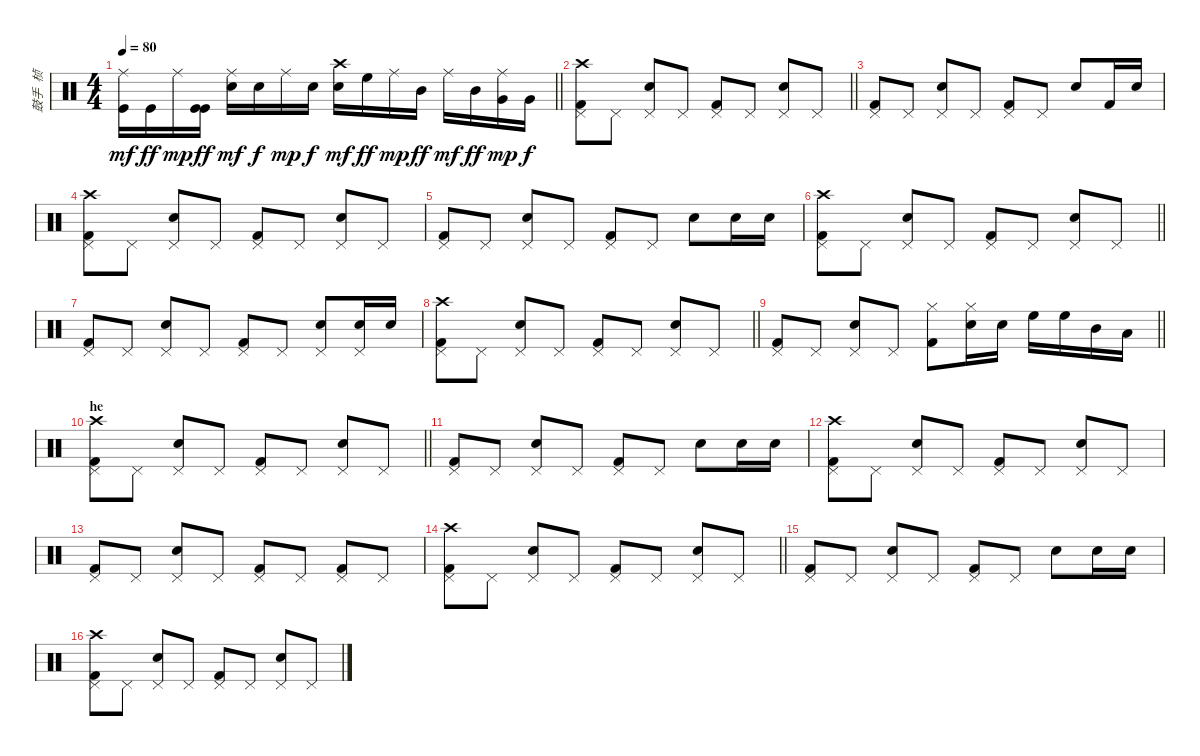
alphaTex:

\track ("鼓手  桢" "鼓手  桢") {instrument percussion}
\staff {score}
\articulation defaults
\ts (4 4)
\tempo 80
\clef neutral
\barLineRight lightlight
\ks c
("Kick (hit)" "Ride (middle)").16{dy mf} "Kick (hit)".16{dy ff} "Ride (middle)".16{dy mp} ("Kick (hit)" "Kick (hit)").16{dy ff} ("Snare (hit) 2" "Ride (middle)").16{dy mf} "Snare (hit) 2".16{dy f} "Ride (middle)".16{dy mp} "Snare (hit) 2".16{dy f} ("Snare (hit) 2" "Crash high (hit)").16{dy mf} "High Floor Tom (hit)".16{dy ff} "Ride (middle)".16{dy mp} "Mid Tom (hit)".16{dy ff} "Ride (middle)".16{dy mf} "Mid Tom (hit)".16{dy ff} ("Very Low Tom (hit)" "Ride (middle)").16{dy mp} "Very Low Tom (hit)".16{dy f} |
\barLineRight lightlight
("Pedal Hi-Hat (hit)" "Kick (hit) 2" "Crash high (hit)").8 "Pedal Hi-Hat (hit)".8 ("Pedal Hi-Hat (hit)" "Snare (hit) 2").8 "Pedal Hi-Hat (hit)".8 ("Pedal Hi-Hat (hit)" "Kick (hit) 2").8 "Pedal Hi-Hat (hit)".8 ("Pedal Hi-Hat (hit)" "Snare (hit) 2").8 "Pedal Hi-Hat (hit)".8 |
("Pedal Hi-Hat (hit)" "Kick (hit) 2").8 "Pedal Hi-Hat (hit)".8 ("Pedal Hi-Hat (hit)" "Snare (hit) 2").8 "Pedal Hi-Hat (hit)".8 ("Pedal Hi-Hat (hit)" "Kick (hit) 2").8 "Pedal Hi-Hat (hit)".8 "Snare (hit) 2".8 "Kick (hit) 2".16 "Snare (hit) 2".16 |
("Pedal Hi-Hat (hit)" "Kick (hit) 2" "Crash high (hit)").8 "Pedal Hi-Hat (hit)".8 ("Pedal Hi-Hat (hit)" "Snare (hit) 2").8 "Pedal Hi-Hat (hit)".8 ("Pedal Hi-Hat (hit)" "Kick (hit) 2").8 "Pedal Hi-Hat (hit)".8 ("Pedal Hi-Hat (hit)" "Snare (hit) 2").8 "Pedal Hi-Hat (hit)".8 |
("Pedal Hi-Hat (hit)" "Kick (hit) 2").8 "Pedal Hi-Hat (hit)".8 ("Pedal Hi-Hat (hit)" "Snare (hit) 2").8 "Pedal Hi-Hat (hit)".8 ("Pedal Hi-Hat (hit)" "Kick (hit) 2").8 "Pedal Hi-Hat (hit)".8 "Snare (hit) 2".8 "Snare (hit) 2".16 "Snare (hit) 2".16 |
\barLineRight lightlight
("Pedal Hi-Hat (hit)" "Kick (hit) 2" "Crash high (hit)").8 "Pedal Hi-Hat (hit)".8 ("Pedal Hi-Hat (hit)" "Snare (hit) 2").8 "Pedal Hi-Hat (hit)".8 ("Pedal Hi-Hat (hit)" "Kick (hit) 2").8 "Pedal Hi-Hat (hit)".8 ("Pedal Hi-Hat (hit)" "Snare (hit) 2").8 "Pedal Hi-Hat (hit)".8 |
("Pedal Hi-Hat (hit)" "Kick (hit) 2").8 "Pedal Hi-Hat (hit)".8 ("Pedal Hi-Hat (hit)" "Snare (hit) 2").8 "Pedal Hi-Hat (hit)".8 ("Pedal Hi-Hat (hit)" "Kick (hit) 2").8 "Pedal Hi-Hat (hit)".8 ("Pedal Hi-Hat (hit)" "Snare (hit) 2").8 ("Pedal Hi-Hat (hit)" "Snare (hit) 2").16 "Snare (hit) 2".16 |
\barLineRight lightlight
("Pedal Hi-Hat (hit)" "Kick (hit) 2" "Crash high (hit)").8 "Pedal Hi-Hat (hit)".8 ("Pedal Hi-Hat (hit)" "Snare (hit) 2").8 "Pedal Hi-Hat (hit)".8 ("Pedal Hi-Hat (hit)" "Kick (hit) 2").8 "Pedal Hi-Hat (hit)".8 ("Pedal Hi-Hat (hit)" "Snare (hit) 2").8 "Pedal Hi-Hat (hit)".8 |
\barLineRight lightlight
("Pedal Hi-Hat (hit)" "Kick (hit) 2").8 "Pedal Hi-Hat (hit)".8 ("Pedal Hi-Hat (hit)" "Snare (hit) 2").8 "Pedal Hi-Hat (hit)".8 ("Hi-Hat (closed)" "Kick (hit) 2").8 ("Hi-Hat (closed)" "Snare (hit) 2").16 "Snare (hit) 2".16 "High Floor Tom (hit)".16 "High Floor Tom (hit)".16 "Mid Tom (hit)".16 "Low Tom (hit)".16 |
\section ("" "he ")
\barLineRight lightlight
("Pedal Hi-Hat (hit)" "Kick (hit) 2" "Crash high (hit)").8 "Pedal Hi-Hat (hit)".8 ("Pedal Hi-Hat (hit)" "Snare (hit) 2").8 "Pedal Hi-Hat (hit)".8 ("Pedal Hi-Hat (hit)" "Kick (hit) 2").8 "Pedal Hi-Hat (hit)".8 ("Pedal Hi-Hat (hit)" "Snare (hit) 2").8 "Pedal Hi-Hat (hit)".8 |
("Pedal Hi-Hat (hit)" "Kick (hit) 2").8 "Pedal Hi-Hat (hit)".8 ("Pedal Hi-Hat (hit)" "Snare (hit) 2").8 "Pedal Hi-Hat (hit)".8 ("Pedal Hi-Hat (hit)" "Kick (hit) 2").8 "Pedal Hi-Hat (hit)".8 "Snare (hit) 2".8 "Snare (hit) 2".16 "Snare (hit) 2".16 |
("Pedal Hi-Hat (hit)" "Kick (hit) 2" "Crash high (hit)").8 "Pedal Hi-Hat (hit)".8 ("Pedal Hi-Hat (hit)" "Snare (hit) 2").8 "Pedal Hi-Hat (hit)".8 ("Pedal Hi-Hat (hit)" "Kick (hit) 2").8 "Pedal Hi-Hat (hit)".8 ("Pedal Hi-Hat (hit)" "Snare (hit) 2").8 "Pedal Hi-Hat (hit)".8 |
("Pedal Hi-Hat (hit)" "Kick (hit) 2").8 "Pedal Hi-Hat (hit)".8 ("Pedal Hi-Hat (hit)" "Snare (hit) 2").8 "Pedal Hi-Hat (hit)".8 ("Pedal Hi-Hat (hit)" "Kick (hit) 2").8 "Pedal Hi-Hat (hit)".8 ("Pedal Hi-Hat (hit)" "Kick (hit) 2").8 "Pedal Hi-Hat (hit)".8 |
\barLineRight lightlight
("Pedal Hi-Hat (hit)" "Kick (hit) 2" "Crash high (hit)").8 "Pedal Hi-Hat (hit)".8 ("Pedal Hi-Hat (hit)" "Snare (hit) 2").8 "Pedal Hi-Hat (hit)".8 ("Pedal Hi-Hat (hit)" "Kick (hit) 2").8 "Pedal Hi-Hat (hit)".8 ("Pedal Hi-Hat (hit)" "Snare (hit) 2").8 "Pedal Hi-Hat (hit)".8 |
("Pedal Hi-Hat (hit)" "Kick (hit) 2").8 "Pedal Hi-Hat (hit)".8 ("Pedal Hi-Hat (hit)" "Snare (hit) 2").8 "Pedal Hi-Hat (hit)".8 ("Pedal Hi-Hat (hit)" "Kick (hit) 2").8 "Pedal Hi-Hat (hit)".8 "Snare (hit) 2".8 "Snare (hit) 2".16 "Snare (hit) 2".16 |
("Pedal Hi-Hat (hit)" "Kick (hit) 2" "Crash high (hit)").8 "Pedal Hi-Hat (hit)".8 ("Pedal Hi-Hat (hit)" "Snare (hit) 2").8 "Pedal Hi-Hat (hit)".8 ("Pedal Hi-Hat (hit)" "Kick (hit) 2").8 "Pedal Hi-Hat (hit)".8 ("Pedal Hi-Hat (hit)" "Snare (hit) 2").8 "Pedal Hi-Hat (hit)".8
